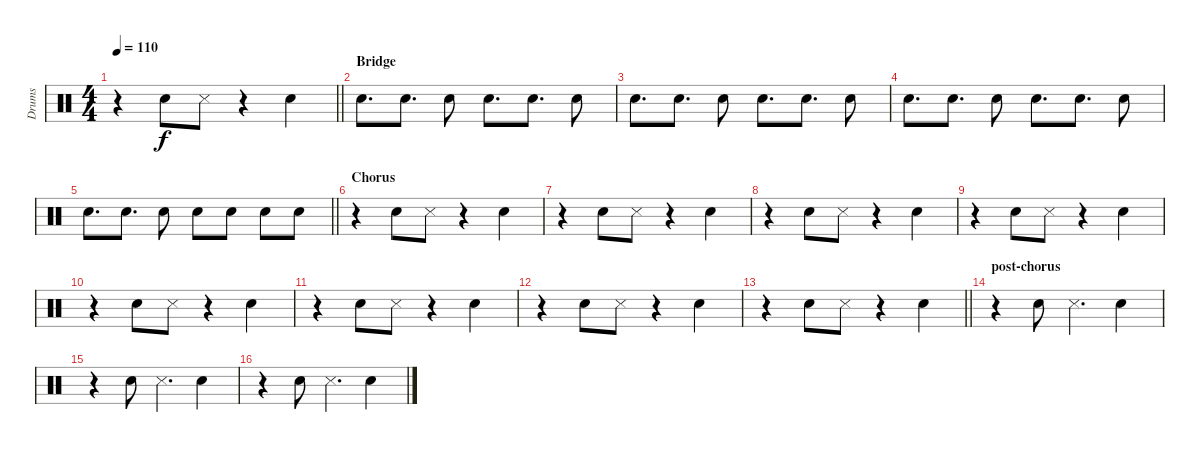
\track ("Drums" "Drums") {instrument percussion}
\staff {score}
\articulation defaults
\ts (4 4)
\tempo 110
\clef neutral
\barLineRight lightlight
\ks c
r.4{dy f} "Snare (hit) 2".8 "Snare (side stick) 3".8 r.4 "Snare (hit) 2".4 |
\section ("" "Bridge")
"Snare (hit) 2".8{d} "Snare (hit) 2".8{d} "Snare (hit) 2".8 "Snare (hit) 2".8{d} "Snare (hit) 2".8{d} "Snare (hit) 2".8 |
"Snare (hit) 2".8{d} "Snare (hit) 2".8{d} "Snare (hit) 2".8 "Snare (hit) 2".8{d} "Snare (hit) 2".8{d} "Snare (hit) 2".8 |
"Snare (hit) 2".8{d} "Snare (hit) 2".8{d} "Snare (hit) 2".8 "Snare (hit) 2".8{d} "Snare (hit) 2".8{d} "Snare (hit) 2".8 |
\barLineRight lightlight "Snare (hit) 2".8{d} "Snare (hit) 2".8{d} "Snare (hit) 2".8 "Snare (hit) 2".8 "Snare (hit) 2".8 "Snare (hit) 2".8 "Snare (hit) 2".8
|
\section ("" "Chorus")
r.4 "Snare (hit) 2".8 "Snare (side stick) 3".8 r.4 "Snare (hit) 2".4 |
r.4 "Snare (hit) 2".8 "Snare (side stick) 3".8 r.4 "Snare (hit) 2".4 |
r.4 "Snare (hit) 2".8 "Snare (side stick) 3".8 r.4 "Snare (hit) 2".4 |
r.4 "Snare (hit) 2".8 "Snare (side stick) 3".8 r.4 "Snare (hit) 2".4 |
r.4 "Snare (hit) 2".8 "Snare (side stick) 3".8 r.4 "Snare (hit) 2".4 |
r.4 "Snare (hit) 2".8 "Snare (side stick) 3".8 r.4 "Snare (hit) 2".4 |
r.4 "Snare (hit) 2".8 "Snare (side stick) 3".8 r.4 "Snare (hit) 2".4 |
\barLineRight lightlight
r.4 "Snare (hit) 2".8 "Snare (side stick) 3".8 r.4 "Snare (hit) 2".4 |
\section ("" "post-chorus")
r.4 "Snare (hit) 2".8 "Snare (side stick) 3".4{d} "Snare (hit) 2".4 |
r.4 "Snare (hit) 2".8 "Snare (side stick) 3".4{d} "Snare (hit) 2".4 |
r.4 "Snare (hit) 2".8 "Snare (side stick) 3".4{d} "Snare (hit) 2".4
